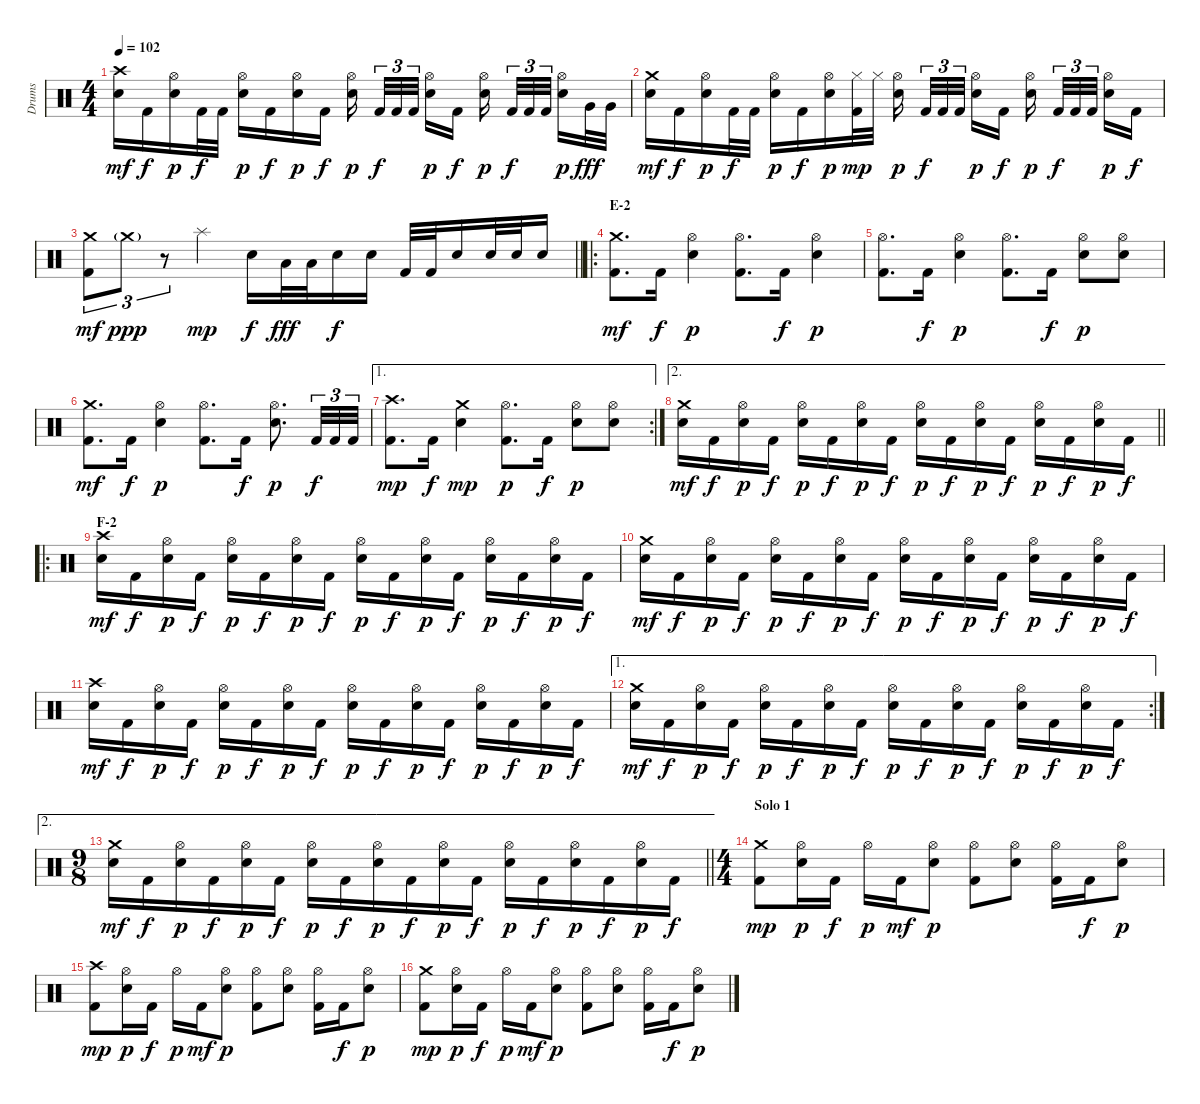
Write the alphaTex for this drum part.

\track ("Drums" "Drums") {instrument percussion}
\staff {score}
\articulation defaults
\ts (4 4)
\tempo 102
\clef neutral
\ks c
("Crash high (hit)" "Electric Snare (hit)").16{dy mf} "Kick (hit) 2".16{dy f} ("Hi-Hat (open)" "Electric Snare (hit)").16{dy p} "Kick (hit) 2".32{dy f} "Kick (hit) 2".32 ("Hi-Hat (open)" "Electric Snare (hit)").16{dy p} "Kick (hit) 2".16{dy f} ("Hi-Hat (open)" "Electric Snare (hit)").16{dy p} "Kick (hit) 2".16{dy f} ("Hi-Hat (open)" "Electric Snare (hit)").16{dy p beam splitsecondary} "Kick (hit) 2".32{tu (3 2) dy f} "Kick (hit) 2".32{tu (3 2)} "Kick (hit) 2".32{tu (3 2) beam splitsecondary} ("Hi-Hat (open)" "Electric Snare (hit)").16{dy p} "Kick (hit) 2".16{dy f} ("Hi-Hat (open)" "Electric Snare (hit)").16{dy p beam splitsecondary} "Kick (hit) 2".32{tu (3 2) dy f} "Kick (hit) 2".32{tu (3 2)} "Kick (hit) 2".32{tu (3 2) beam splitsecondary} ("Hi-Hat (open)" "Electric Snare (hit)").16{dy p} "Very Low Tom (hit)".32{dy fff} "Very Low Tom (hit)".32 |
("Crash medium (hit)" "Electric Snare (hit)").16{dy mf} "Kick (hit) 2".16{dy f} ("Hi-Hat (open)" "Electric Snare (hit)").16{dy p} "Kick (hit) 2".32{dy f} "Kick (hit) 2".32 ("Hi-Hat (open)" "Electric Snare (hit)").16{dy p} "Kick (hit) 2".16{dy f} ("Hi-Hat (open)" "Electric Snare (hit)").16{dy p} ("Hi-Hat (closed)" "Kick (hit) 2").32{dy mp} "Hi-Hat (closed)".32 ("Hi-Hat (open)" "Electric Snare (hit)").16{dy p beam splitsecondary} "Kick (hit) 2".32{tu (3 2) dy f} "Kick (hit) 2".32{tu (3 2)} "Kick (hit) 2".32{tu (3 2) beam splitsecondary} ("Hi-Hat (open)" "Electric Snare (hit)").16{dy p} "Kick (hit) 2".16{dy f} ("Hi-Hat (open)" "Electric Snare (hit)").16{dy p beam splitsecondary} "Kick (hit) 2".32{tu (3 2) dy f} "Kick (hit) 2".32{tu (3 2)} "Kick (hit) 2".32{tu (3 2) beam splitsecondary} ("Hi-Hat (open)" "Electric Snare (hit)").16{dy p} "Kick (hit) 2".16{dy f} |
\barLineRight lightlight
("Crash medium (hit)" "Kick (hit) 2").8{tu (3 2) dy mf} "Crash medium (hit)"{g}.8{tu (3 2) dy ppp} r.8{tu (3 2)} "Splash (hit)".4{dy mp} "Electric Snare (hit)".16{dy f} "Low Tom (hit)".32{dy fff} "Low Tom (hit)".32 "Electric Snare (hit)".16{dy f} "Electric Snare (hit)".16 "Kick (hit) 2".32 "Kick (hit) 2".32 "Electric Snare (hit)".16 "Electric Snare (hit)".32 "Electric Snare (hit)".32 "Electric Snare (hit)".16 |
\ro
\section ("" "E-2")
("Crash medium (hit)" "Kick (hit) 2").8{d dy mf} "Kick (hit) 2".16{dy f} ("Hi-Hat (open)" "Electric Snare (hit)").4{dy p} ("Hi-Hat (open)" "Kick (hit) 2").8{d} "Kick (hit) 2".16{dy f} ("Hi-Hat (open)" "Electric Snare (hit)").4{dy p} |
("Hi-Hat (open)" "Kick (hit) 2").8{d} "Kick (hit) 2".16{dy f} ("Hi-Hat (open)" "Electric Snare (hit)").4{dy p} ("Hi-Hat (open)" "Kick (hit) 2").8{d} "Kick (hit) 2".16{dy f} ("Hi-Hat (open)" "Electric Snare (hit)").8{dy p} ("Hi-Hat (open)" "Electric Snare (hit)").8 |
("Crash medium (hit)" "Kick (hit) 2").8{d dy mf} "Kick (hit) 2".16{dy f} ("Hi-Hat (open)" "Electric Snare (hit)").4{dy p} ("Hi-Hat (open)" "Kick (hit) 2").8{d} "Kick (hit) 2".16{dy f} ("Hi-Hat (open)" "Electric Snare (hit)").8{d dy p} "Kick (hit) 2".32{tu (3 2) dy f} "Kick (hit) 2".32{tu (3 2)} "Kick (hit) 2".32{tu (3 2)} |
\ae 1
\rc 2
("Crash high (hit)" "Kick (hit) 2").8{d dy mp} "Kick (hit) 2".16{dy f} ("Crash medium (hit)" "Electric Snare (hit)").4{dy mp} ("Hi-Hat (open)" "Kick (hit) 2").8{d dy p} "Kick (hit) 2".16{dy f} ("Hi-Hat (open)" "Electric Snare (hit)").8{dy p} ("Hi-Hat (open)" "Electric Snare (hit)").8 |
\ae 2
\barLineRight lightlight
("Crash medium (hit)" "Electric Snare (hit)").16{dy mf} "Kick (hit) 2".16{dy f} ("Hi-Hat (open)" "Electric Snare (hit)").16{dy p} "Kick (hit) 2".16{dy f} ("Hi-Hat (open)" "Electric Snare (hit)").16{dy p} "Kick (hit) 2".16{dy f} ("Hi-Hat (open)" "Electric Snare (hit)").16{dy p} "Kick (hit) 2".16{dy f} ("Hi-Hat (open)" "Electric Snare (hit)").16{dy p} "Kick (hit) 2".16{dy f} ("Hi-Hat (open)" "Electric Snare (hit)").16{dy p} "Kick (hit) 2".16{dy f} ("Hi-Hat (open)" "Electric Snare (hit)").16{dy p} "Kick (hit) 2".16{dy f} ("Hi-Hat (open)" "Electric Snare (hit)").16{dy p} "Kick (hit) 2".16{dy f} |
\ro
\section ("" "F-2")
("Crash high (hit)" "Electric Snare (hit)").16{dy mf} "Kick (hit) 2".16{dy f} ("Hi-Hat (open)" "Electric Snare (hit)").16{dy p} "Kick (hit) 2".16{dy f} ("Hi-Hat (open)" "Electric Snare (hit)").16{dy p} "Kick (hit) 2".16{dy f} ("Hi-Hat (open)" "Electric Snare (hit)").16{dy p} "Kick (hit) 2".16{dy f} ("Hi-Hat (open)" "Electric Snare (hit)").16{dy p} "Kick (hit) 2".16{dy f} ("Hi-Hat (open)" "Electric Snare (hit)").16{dy p} "Kick (hit) 2".16{dy f} ("Hi-Hat (open)" "Electric Snare (hit)").16{dy p} "Kick (hit) 2".16{dy f} ("Hi-Hat (open)" "Electric Snare (hit)").16{dy p} "Kick (hit) 2".16{dy f} |
("Crash medium (hit)" "Electric Snare (hit)").16{dy mf} "Kick (hit) 2".16{dy f} ("Hi-Hat (open)" "Electric Snare (hit)").16{dy p} "Kick (hit) 2".16{dy f} ("Hi-Hat (open)" "Electric Snare (hit)").16{dy p} "Kick (hit) 2".16{dy f} ("Hi-Hat (open)" "Electric Snare (hit)").16{dy p} "Kick (hit) 2".16{dy f} ("Hi-Hat (open)" "Electric Snare (hit)").16{dy p} "Kick (hit) 2".16{dy f} ("Hi-Hat (open)" "Electric Snare (hit)").16{dy p} "Kick (hit) 2".16{dy f} ("Hi-Hat (open)" "Electric Snare (hit)").16{dy p} "Kick (hit) 2".16{dy f} ("Hi-Hat (open)" "Electric Snare (hit)").16{dy p} "Kick (hit) 2".16{dy f} |
("Crash high (hit)" "Electric Snare (hit)").16{dy mf} "Kick (hit) 2".16{dy f} ("Hi-Hat (open)" "Electric Snare (hit)").16{dy p} "Kick (hit) 2".16{dy f} ("Hi-Hat (open)" "Electric Snare (hit)").16{dy p} "Kick (hit) 2".16{dy f} ("Hi-Hat (open)" "Electric Snare (hit)").16{dy p} "Kick (hit) 2".16{dy f} ("Hi-Hat (open)" "Electric Snare (hit)").16{dy p} "Kick (hit) 2".16{dy f} ("Hi-Hat (open)" "Electric Snare (hit)").16{dy p} "Kick (hit) 2".16{dy f} ("Hi-Hat (open)" "Electric Snare (hit)").16{dy p} "Kick (hit) 2".16{dy f} ("Hi-Hat (open)" "Electric Snare (hit)").16{dy p} "Kick (hit) 2".16{dy f} |
\ae 1
\rc 2
("Crash medium (hit)" "Electric Snare (hit)").16{dy mf} "Kick (hit) 2".16{dy f} ("Hi-Hat (open)" "Electric Snare (hit)").16{dy p} "Kick (hit) 2".16{dy f} ("Hi-Hat (open)" "Electric Snare (hit)").16{dy p} "Kick (hit) 2".16{dy f} ("Hi-Hat (open)" "Electric Snare (hit)").16{dy p} "Kick (hit) 2".16{dy f} ("Hi-Hat (open)" "Electric Snare (hit)").16{dy p} "Kick (hit) 2".16{dy f} ("Hi-Hat (open)" "Electric Snare (hit)").16{dy p} "Kick (hit) 2".16{dy f} ("Hi-Hat (open)" "Electric Snare (hit)").16{dy p} "Kick (hit) 2".16{dy f} ("Hi-Hat (open)" "Electric Snare (hit)").16{dy p} "Kick (hit) 2".16{dy f} |
\ae 2
\ts (9 8)
\barLineRight lightlight
("Crash medium (hit)" "Electric Snare (hit)").16{dy mf} "Kick (hit) 2".16{dy f} ("Hi-Hat (open)" "Electric Snare (hit)").16{dy p} "Kick (hit) 2".16{dy f} ("Hi-Hat (open)" "Electric Snare (hit)").16{dy p} "Kick (hit) 2".16{dy f} ("Hi-Hat (open)" "Electric Snare (hit)").16{dy p} "Kick (hit) 2".16{dy f} ("Hi-Hat (open)" "Electric Snare (hit)").16{dy p} "Kick (hit) 2".16{dy f} ("Hi-Hat (open)" "Electric Snare (hit)").16{dy p} "Kick (hit) 2".16{dy f} ("Hi-Hat (open)" "Electric Snare (hit)").16{dy p} "Kick (hit) 2".16{dy f} ("Hi-Hat (open)" "Electric Snare (hit)").16{dy p} "Kick (hit) 2".16{dy f} ("Hi-Hat (open)" "Electric Snare (hit)").16{dy p} "Kick (hit) 2".16{dy f} |
\ts (4 4)
\section ("" "Solo 1")
("Crash medium (hit)" "Kick (hit) 2").8{dy mp} ("Hi-Hat (open)" "Electric Snare (hit)").16{dy p} "Kick (hit) 2".16{dy f} "Hi-Hat (open)".16{dy p} "Kick (hit) 2".16{dy mf} ("Hi-Hat (open)" "Electric Snare (hit)").8{dy p} ("Hi-Hat (open)" "Kick (hit) 2").8 ("Hi-Hat (open)" "Electric Snare (hit)").8 ("Hi-Hat (open)" "Kick (hit) 2").16 "Kick (hit) 2".16{dy f} ("Hi-Hat (open)" "Electric Snare (hit)").8{dy p} |
("Crash high (hit)" "Kick (hit) 2").8{dy mp} ("Hi-Hat (open)" "Electric Snare (hit)").16{dy p} "Kick (hit) 2".16{dy f} "Hi-Hat (open)".16{dy p} "Kick (hit) 2".16{dy mf} ("Hi-Hat (open)" "Electric Snare (hit)").8{dy p} ("Hi-Hat (open)" "Kick (hit) 2").8 ("Hi-Hat (open)" "Electric Snare (hit)").8 ("Hi-Hat (open)" "Kick (hit) 2").16 "Kick (hit) 2".16{dy f} ("Hi-Hat (open)" "Electric Snare (hit)").8{dy p} |
("Crash medium (hit)" "Kick (hit) 2").8{dy mp} ("Hi-Hat (open)" "Electric Snare (hit)").16{dy p} "Kick (hit) 2".16{dy f} "Hi-Hat (open)".16{dy p} "Kick (hit) 2".16{dy mf} ("Hi-Hat (open)" "Electric Snare (hit)").8{dy p} ("Hi-Hat (open)" "Kick (hit) 2").8 ("Hi-Hat (open)" "Electric Snare (hit)").8 ("Hi-Hat (open)" "Kick (hit) 2").16 "Kick (hit) 2".16{dy f} ("Hi-Hat (open)" "Electric Snare (hit)").8{dy p}
